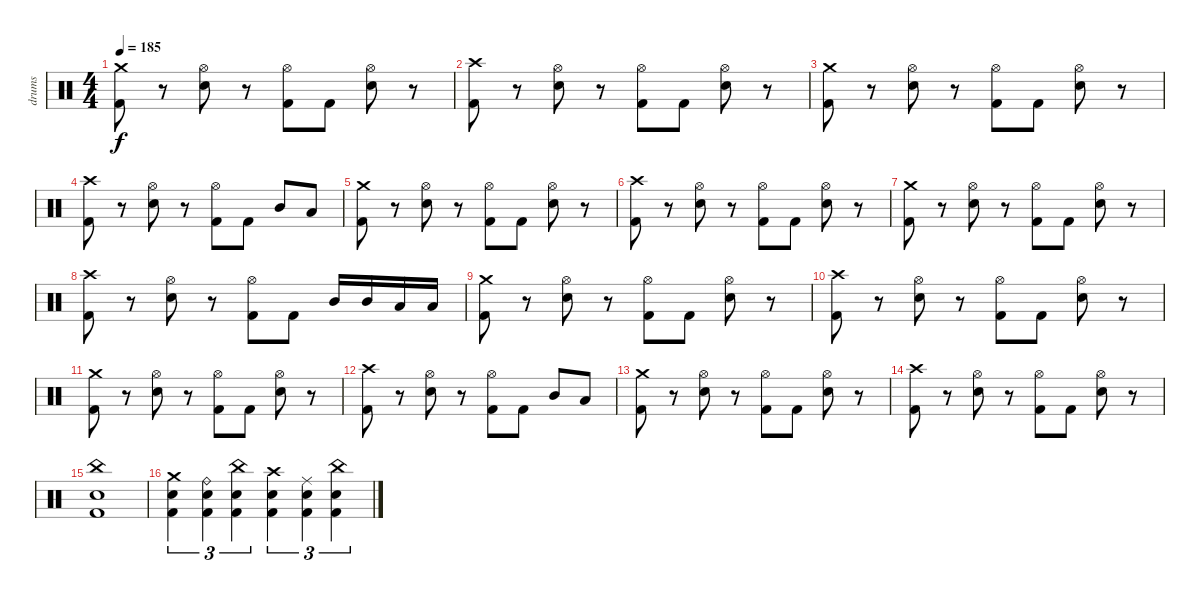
\track ("drums" "drums") {instrument percussion}
\staff {score}
\articulation defaults
\ts (4 4)
\tempo 185
\clef neutral
\ks c
("Crash medium (hit)" "Kick (hit) 2").8{dy f} r.8 ("Hi-Hat (open)" "Snare (hit) 2").8 r.8 ("Hi-Hat (open)" "Kick (hit) 2").8 "Kick (hit) 2".8 ("Hi-Hat (open)" "Snare (hit) 2").8 r.8 |
("Crash high (hit)" "Kick (hit) 2").8 r.8 ("Hi-Hat (open)" "Snare (hit) 2").8 r.8 ("Hi-Hat (open)" "Kick (hit) 2").8 "Kick (hit) 2".8 ("Hi-Hat (open)" "Snare (hit) 2").8 r.8 |
("Crash medium (hit)" "Kick (hit) 2").8 r.8 ("Hi-Hat (open)" "Snare (hit) 2").8 r.8 ("Hi-Hat (open)" "Kick (hit) 2").8 "Kick (hit) 2".8 ("Hi-Hat (open)" "Snare (hit) 2").8 r.8 |
("Crash high (hit)" "Kick (hit) 2").8 r.8 ("Hi-Hat (open)" "Snare (hit) 2").8 r.8 ("Hi-Hat (open)" "Kick (hit) 2").8 "Kick (hit) 2".8 "Mid Tom (hit)".8 "Low Tom (hit)".8 |
("Crash medium (hit)" "Kick (hit) 2").8 r.8 ("Hi-Hat (open)" "Snare (hit) 2").8 r.8 ("Hi-Hat (open)" "Kick (hit) 2").8 "Kick (hit) 2".8 ("Hi-Hat (open)" "Snare (hit) 2").8 r.8 |
("Crash high (hit)" "Kick (hit) 2").8 r.8 ("Hi-Hat (open)" "Snare (hit) 2").8 r.8 ("Hi-Hat (open)" "Kick (hit) 2").8 "Kick (hit) 2".8 ("Hi-Hat (open)" "Snare (hit) 2").8 r.8 |
("Crash medium (hit)" "Kick (hit) 2").8 r.8 ("Hi-Hat (open)" "Snare (hit) 2").8 r.8 ("Hi-Hat (open)" "Kick (hit) 2").8 "Kick (hit) 2".8 ("Hi-Hat (open)" "Snare (hit) 2").8 r.8 |
("Crash high (hit)" "Kick (hit) 2").8 r.8 ("Hi-Hat (open)" "Snare (hit) 2").8 r.8 ("Hi-Hat (open)" "Kick (hit) 2").8 "Kick (hit) 2".8 "Mid Tom (hit)".16 "Mid Tom (hit)".16 "Low Tom (hit)".16 "Low Tom (hit)".16 |
("Crash medium (hit)" "Kick (hit) 2").8 r.8 ("Hi-Hat (open)" "Snare (hit) 2").8 r.8 ("Hi-Hat (open)" "Kick (hit) 2").8 "Kick (hit) 2".8 ("Hi-Hat (open)" "Snare (hit) 2").8 r.8 |
("Crash high (hit)" "Kick (hit) 2").8 r.8 ("Hi-Hat (open)" "Snare (hit) 2").8 r.8 ("Hi-Hat (open)" "Kick (hit) 2").8 "Kick (hit) 2".8 ("Hi-Hat (open)" "Snare (hit) 2").8 r.8 |
("Crash medium (hit)" "Kick (hit) 2").8 r.8 ("Hi-Hat (open)" "Snare (hit) 2").8 r.8 ("Hi-Hat (open)" "Kick (hit) 2").8 "Kick (hit) 2".8 ("Hi-Hat (open)" "Snare (hit) 2").8 r.8 |
("Crash high (hit)" "Kick (hit) 2").8 r.8 ("Hi-Hat (open)" "Snare (hit) 2").8 r.8 ("Hi-Hat (open)" "Kick (hit) 2").8 "Kick (hit) 2".8 "Mid Tom (hit)".8 "Low Tom (hit)".8 |
("Crash medium (hit)" "Kick (hit) 2").8 r.8 ("Hi-Hat (open)" "Snare (hit) 2").8 r.8 ("Hi-Hat (open)" "Kick (hit) 2").8 "Kick (hit) 2".8 ("Hi-Hat (open)" "Snare (hit) 2").8 r.8 |
("Crash high (hit)" "Kick (hit) 2").8 r.8 ("Hi-Hat (open)" "Snare (hit) 2").8 r.8 ("Hi-Hat (open)" "Kick (hit) 2").8 "Kick (hit) 2".8 ("Hi-Hat (open)" "Snare (hit) 2").8 r.8 |
("China (hit)" "Snare (hit) 2" "Kick (hit) 2").1 |
("Crash medium (hit)" "Snare (hit) 2" "Kick (hit) 2").4{tu (3 2)} ("Ride (bell)" "Snare (hit) 2" "Kick (hit) 2").4{tu (3 2)} ("China (hit)" "Snare (hit) 2" "Kick (hit) 2").4{tu (3 2)} ("Crash high (hit)" "Snare (hit) 2" "Kick (hit) 2").4{tu (3 2)} ("Ride (middle)" "Snare (hit) 2" "Kick (hit) 2").4{tu (3 2)} ("China (hit)" "Snare (hit) 2" "Kick (hit) 2").4{tu (3 2)}
